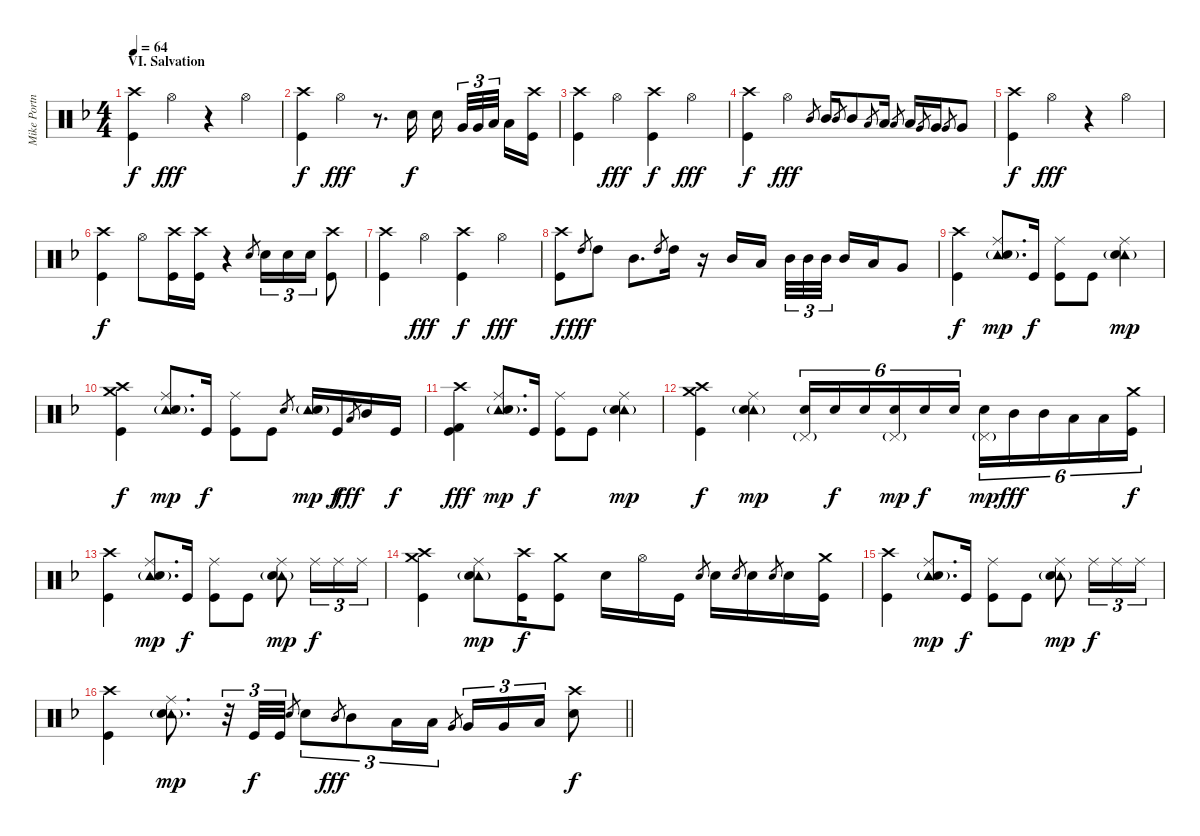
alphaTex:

\track ("Mike Portnoy - Drums" "Mike Portn") {instrument percussion}
\staff {score}
\articulation defaults
\ts (4 4)
\section ("" "VI. Salvation")
\tempo 64
\clef neutral
\ks dminor
("Crash high (hit)" "Kick (hit)").4{dy f} "Hi-Hat (open)".4{dy fff} r.4 "Hi-Hat (open)".4 |
("Crash high (hit)" "Kick (hit)").4{dy f} "Hi-Hat (open)".4{dy fff} r.8{d} "Snare (hit) 2".16{dy f} "Snare (hit) 2".16{beam splitsecondary} "Very Low Tom (hit)".32{tu (3 2)} "Very Low Tom (hit)".32{tu (3 2)} "Low Floor Tom (hit)".32{tu (3 2) beam splitsecondary} "Low Floor Tom (hit)".16 ("Crash high (hit)" "Kick (hit)").16 |
("Crash high (hit)" "Kick (hit)").4 "Hi-Hat (open)".4{dy fff} ("Crash high (hit)" "Kick (hit)").4{dy f} "Hi-Hat (open)".4{dy fff} |
("Crash high (hit)" "Kick (hit)").4{dy f} "Hi-Hat (open)".4{dy fff} "Mid Tom (hit)".8{gr} "Mid Tom (hit)".16 "Mid Tom (hit)".8{gr} "Mid Tom (hit)".8 "Low Tom (hit)".8{gr} "Low Tom (hit)".16 "Low Tom (hit)".8{gr} "Low Tom (hit)".16 "Very Low Tom (hit)".8{gr} "Very Low Tom (hit)".16 "Very Low Tom (hit)".8{gr} "Very Low Tom (hit)".8 |
("Crash high (hit)" "Kick (hit)").4{dy f} "Hi-Hat (open)".4{dy fff} r.4 "Hi-Hat (open)".4 |
("Crash high (hit)" "Kick (hit)").4{dy f} "Hi-Hat (open)".8 ("Crash high (hit)" "Kick (hit)").16 ("Crash high (hit)" "Kick (hit)").16 r.4 "Snare (hit) 2".8{gr} "Snare (hit) 2".16{tu (3 2)} "Snare (hit) 2".16{tu (3 2)} "Snare (hit) 2".16{tu (3 2)} ("Crash high (hit)" "Kick (hit)").8 |
("Crash high (hit)" "Kick (hit)").4 "Hi-Hat (open)".4{dy fff} ("Crash high (hit)" "Kick (hit)").4{dy f} "Hi-Hat (open)".4{dy fff} |
("Crash high (hit)" "Kick (hit)").8{dy f} "High Tom (hit)".8{gr dy fff} "High Tom (hit)".8 "Mid Tom (hit)".8{d} "High Tom (hit)".8{gr} "High Tom (hit)".16 r.16 "Mid Tom (hit)".16 "Low Tom (hit)".16{beam splitsecondary} "Mid Tom (hit)".32{tu (3 2)} "Mid Tom (hit)".32{tu (3 2)} "Mid Tom (hit)".32{tu (3 2)} "Mid Tom (hit)".16 "Low Tom (hit)".16 "Very Low Tom (hit)".8 |
("Crash high (hit)" "Kick (hit)").4{dy f} ("Ride (middle)" "Tambourine (hit)"{g} "Snare (hit) 2").8{d dy mp} "Kick (hit)".16{dy f} ("Ride (middle)" "Kick (hit)").8 "Kick (hit)".8 ("Ride (middle)" "Tambourine (hit)"{g} "Snare (hit) 2").4{dy mp} |
("Crash high (hit)" "Crash medium (hit)" "Kick (hit)").4{dy f} ("Ride (middle)" "Tambourine (hit)"{g} "Snare (hit) 2").8{d dy mp} "Kick (hit)".16{dy f} ("Ride (middle)" "Kick (hit)").8 "Kick (hit)".8 "Snare (hit) 2".8{gr} ("Tambourine (hit)"{g} "Snare (hit) 2").16{dy mp} "Kick (hit)".16{dy f} "Low Tom (hit)".8{gr dy fff} "Mid Tom (hit)".16 "Kick (hit)".16{dy f} |
("Crash high (hit)" "Kick (hit)" "Kick (hit) 2").4{dy fff} ("Ride (middle)" "Tambourine (hit)"{g} "Snare (hit) 2").8{d dy mp} "Kick (hit)".16{dy f} ("Ride (middle)" "Kick (hit)").8 "Kick (hit)".8 ("Ride (middle)" "Tambourine (hit)"{g} "Snare (hit) 2").4{dy mp} |
("Crash high (hit)" "Crash medium (hit)" "Kick (hit)").4{dy f} ("Ride (middle)" "Tambourine (hit)"{g} "Snare (hit) 2").4{dy mp} ("Snare (hit) 2" "Pedal Hi-Hat (hit)"{g}).16{tu (6 4)} "Snare (hit) 2".16{tu (6 4) dy f} "Snare (hit) 2".16{tu (6 4)} ("Snare (hit) 2" "Pedal Hi-Hat (hit)"{g}).16{tu (6 4) dy mp} "Snare (hit) 2".16{tu (6 4) dy f} "Snare (hit) 2".16{tu (6 4)} ("Snare (hit) 2" "Pedal Hi-Hat (hit)"{g}).16{tu (6 4) dy mp} "Mid Tom (hit)".16{tu (6 4) dy fff} "Mid Tom (hit)".16{tu (6 4)} "Low Tom (hit)".16{tu (6 4)} "Low Tom (hit)".16{tu (6 4)} ("Crash medium (hit)" "Kick (hit)").16{tu (6 4) dy f} |
("Crash high (hit)" "Kick (hit)").4 ("Ride (middle)" "Tambourine (hit)"{g} "Snare (hit) 2").8{d dy mp} "Kick (hit)".16{dy f} ("Ride (middle)" "Kick (hit)").8 "Kick (hit)".8 ("Ride (middle)" "Tambourine (hit)"{g} "Snare (hit) 2").8{dy mp} "Ride (middle)".16{tu (3 2) dy f} "Ride (middle)".16{tu (3 2)} "Ride (middle)".16{tu (3 2)} |
("Crash high (hit)" "Crash medium (hit)" "Kick (hit)").4 ("Ride (middle)" "Tambourine (hit)"{g} "Snare (hit) 2").8{dy mp} ("Crash high (hit)" "Kick (hit)").16{dy f} ("Crash medium (hit)" "Kick (hit)").8 "Snare (hit) 2".16 "Hi-Hat (open)".16 "Kick (hit)".16 "Snare (hit) 2".8{gr} "Snare (hit) 2".16 "Snare (hit) 2".8{gr} "Snare (hit) 2".16 "Snare (hit) 2".8{gr} "Snare (hit) 2".16 ("Crash medium (hit)" "Kick (hit)").16 |
("Crash high (hit)" "Kick (hit)").4 ("Ride (middle)" "Tambourine (hit)"{g} "Snare (hit) 2").8{d dy mp} "Kick (hit)".16{dy f} ("Ride (middle)" "Kick (hit)").8 "Kick (hit)".8 ("Ride (middle)" "Tambourine (hit)"{g} "Snare (hit) 2").8{dy mp} "Ride (middle)".16{tu (3 2) dy f} "Ride (middle)".16{tu (3 2)} "Ride (middle)".16{tu (3 2)} |
\barLineRight lightlight
("Crash high (hit)" "Kick (hit)").4 ("Ride (middle)" "Tambourine (hit)"{g} "Snare (hit) 2").8{d dy mp} r.32{tu (3 2)} "Kick (hit)".32{tu (3 2) dy f} "Kick (hit)".32{tu (3 2)} "Snare (hit) 2".8{gr} "Snare (hit) 2".8{tu (3 2)} "Mid Tom (hit)".8{gr dy fff} "Mid Tom (hit)".8{tu (3 2)} "Low Tom (hit)".16{tu (3 2)} "Low Tom (hit)".16{tu (3 2)} "Very Low Tom (hit)".8{gr} "Very Low Tom (hit)".16{tu (3 2)} "Very Low Tom (hit)".16{tu (3 2)} "Low Floor Tom (hit)".16{tu (3 2)} ("Crash high (hit)" "Snare (hit) 2").8{dy f}
